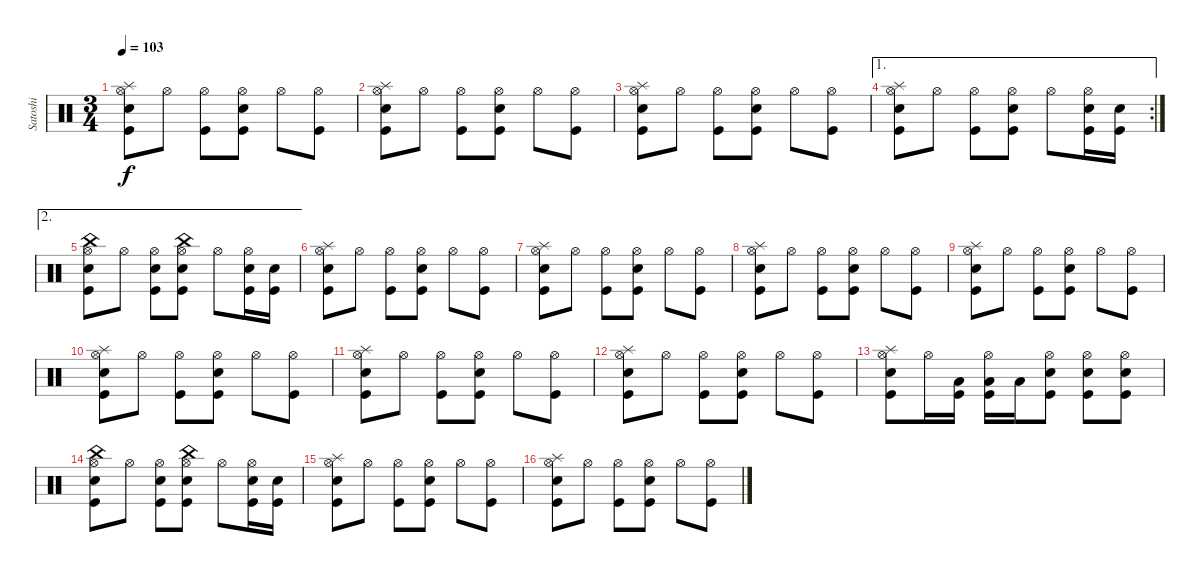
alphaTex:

\track ("Satoshi" "Satoshi") {instrument percussion}
\staff {score}
\articulation defaults
\ts (3 4)
\tempo 103
\clef neutral
\ks c
("Splash (hit)" "Hi-Hat (open)" "Electric Snare (hit)" "Kick (hit)").8{dy f} "Hi-Hat (open)".8 ("Hi-Hat (open)" "Kick (hit)").8 ("Hi-Hat (open)" "Electric Snare (hit)" "Kick (hit)").8 "Hi-Hat (open)".8 ("Hi-Hat (open)" "Kick (hit)").8 |
("Splash (hit)" "Hi-Hat (open)" "Electric Snare (hit)" "Kick (hit)").8 "Hi-Hat (open)".8 ("Hi-Hat (open)" "Kick (hit)").8 ("Hi-Hat (open)" "Electric Snare (hit)" "Kick (hit)").8 "Hi-Hat (open)".8 ("Hi-Hat (open)" "Kick (hit)").8 |
("Splash (hit)" "Hi-Hat (open)" "Electric Snare (hit)" "Kick (hit)").8 "Hi-Hat (open)".8 ("Hi-Hat (open)" "Kick (hit)").8 ("Hi-Hat (open)" "Electric Snare (hit)" "Kick (hit)").8 "Hi-Hat (open)".8 ("Hi-Hat (open)" "Kick (hit)").8 |
\ae 1
\rc 2
("Splash (hit)" "Hi-Hat (open)" "Electric Snare (hit)" "Kick (hit)").8 "Hi-Hat (open)".8 ("Hi-Hat (open)" "Kick (hit)").8 ("Hi-Hat (open)" "Electric Snare (hit)" "Kick (hit)").8 "Hi-Hat (open)".8 ("Hi-Hat (open)" "Electric Snare (hit)" "Kick (hit)").16 ("Electric Snare (hit)" "Kick (hit)").16 |
\ae 2
("China (hit)" "Hi-Hat (open)" "Electric Snare (hit)" "Kick (hit)").8 "Hi-Hat (open)".8 ("Hi-Hat (open)" "Electric Snare (hit)" "Kick (hit)").8 ("China (hit)" "Hi-Hat (open)" "Electric Snare (hit)" "Kick (hit)").8 "Hi-Hat (open)".8 ("Hi-Hat (open)" "Electric Snare (hit)" "Kick (hit)").16 ("Electric Snare (hit)" "Kick (hit)").16 |
("Splash (hit)" "Hi-Hat (open)" "Electric Snare (hit)" "Kick (hit)").8 "Hi-Hat (open)".8 ("Hi-Hat (open)" "Kick (hit)").8 ("Hi-Hat (open)" "Electric Snare (hit)" "Kick (hit)").8 "Hi-Hat (open)".8 ("Hi-Hat (open)" "Kick (hit)").8 |
("Splash (hit)" "Hi-Hat (open)" "Electric Snare (hit)" "Kick (hit)").8 "Hi-Hat (open)".8 ("Hi-Hat (open)" "Kick (hit)").8 ("Hi-Hat (open)" "Electric Snare (hit)" "Kick (hit)").8 "Hi-Hat (open)".8 ("Hi-Hat (open)" "Kick (hit)").8 |
("Splash (hit)" "Hi-Hat (open)" "Electric Snare (hit)" "Kick (hit)").8 "Hi-Hat (open)".8 ("Hi-Hat (open)" "Kick (hit)").8 ("Hi-Hat (open)" "Electric Snare (hit)" "Kick (hit)").8 "Hi-Hat (open)".8 ("Hi-Hat (open)" "Kick (hit)").8 |
("Splash (hit)" "Hi-Hat (open)" "Electric Snare (hit)" "Kick (hit)").8 "Hi-Hat (open)".8 ("Hi-Hat (open)" "Kick (hit)").8 ("Hi-Hat (open)" "Electric Snare (hit)" "Kick (hit)").8 "Hi-Hat (open)".8 ("Hi-Hat (open)" "Kick (hit)").8 |
("Splash (hit)" "Hi-Hat (open)" "Electric Snare (hit)" "Kick (hit)").8 "Hi-Hat (open)".8 ("Hi-Hat (open)" "Kick (hit)").8 ("Hi-Hat (open)" "Electric Snare (hit)" "Kick (hit)").8 "Hi-Hat (open)".8 ("Hi-Hat (open)" "Kick (hit)").8 |
("Splash (hit)" "Hi-Hat (open)" "Electric Snare (hit)" "Kick (hit)").8 "Hi-Hat (open)".8 ("Hi-Hat (open)" "Kick (hit)").8 ("Hi-Hat (open)" "Electric Snare (hit)" "Kick (hit)").8 "Hi-Hat (open)".8 ("Hi-Hat (open)" "Kick (hit)").8 |
("Splash (hit)" "Hi-Hat (open)" "Electric Snare (hit)" "Kick (hit)").8 "Hi-Hat (open)".8 ("Hi-Hat (open)" "Kick (hit)").8 ("Hi-Hat (open)" "Electric Snare (hit)" "Kick (hit)").8 "Hi-Hat (open)".8 ("Hi-Hat (open)" "Kick (hit)").8 |
("Splash (hit)" "Hi-Hat (open)" "Electric Snare (hit)" "Kick (hit)").8 "Hi-Hat (open)".16 ("Low Tom (hit)" "Kick (hit)").16 ("Low Tom (hit)" "Hi-Hat (open)" "Kick (hit)").16 "Low Tom (hit)".16 ("Hi-Hat (open)" "Electric Snare (hit)" "Kick (hit)").8 ("Hi-Hat (open)" "Electric Snare (hit)" "Kick (hit)").8 ("Hi-Hat (open)" "Electric Snare (hit)" "Kick (hit)").8 |
("China (hit)" "Hi-Hat (open)" "Electric Snare (hit)" "Kick (hit)").8 "Hi-Hat (open)".8 ("Hi-Hat (open)" "Electric Snare (hit)" "Kick (hit)").8 ("China (hit)" "Hi-Hat (open)" "Electric Snare (hit)" "Kick (hit)").8 "Hi-Hat (open)".8 ("Hi-Hat (open)" "Electric Snare (hit)" "Kick (hit)").16 ("Electric Snare (hit)" "Kick (hit)").16 |
("Splash (hit)" "Hi-Hat (open)" "Electric Snare (hit)" "Kick (hit)").8 "Hi-Hat (open)".8 ("Hi-Hat (open)" "Kick (hit)").8 ("Hi-Hat (open)" "Electric Snare (hit)" "Kick (hit)").8 "Hi-Hat (open)".8 ("Hi-Hat (open)" "Kick (hit)").8 |
("Splash (hit)" "Hi-Hat (open)" "Electric Snare (hit)" "Kick (hit)").8 "Hi-Hat (open)".8 ("Hi-Hat (open)" "Kick (hit)").8 ("Hi-Hat (open)" "Electric Snare (hit)" "Kick (hit)").8 "Hi-Hat (open)".8 ("Hi-Hat (open)" "Kick (hit)").8
